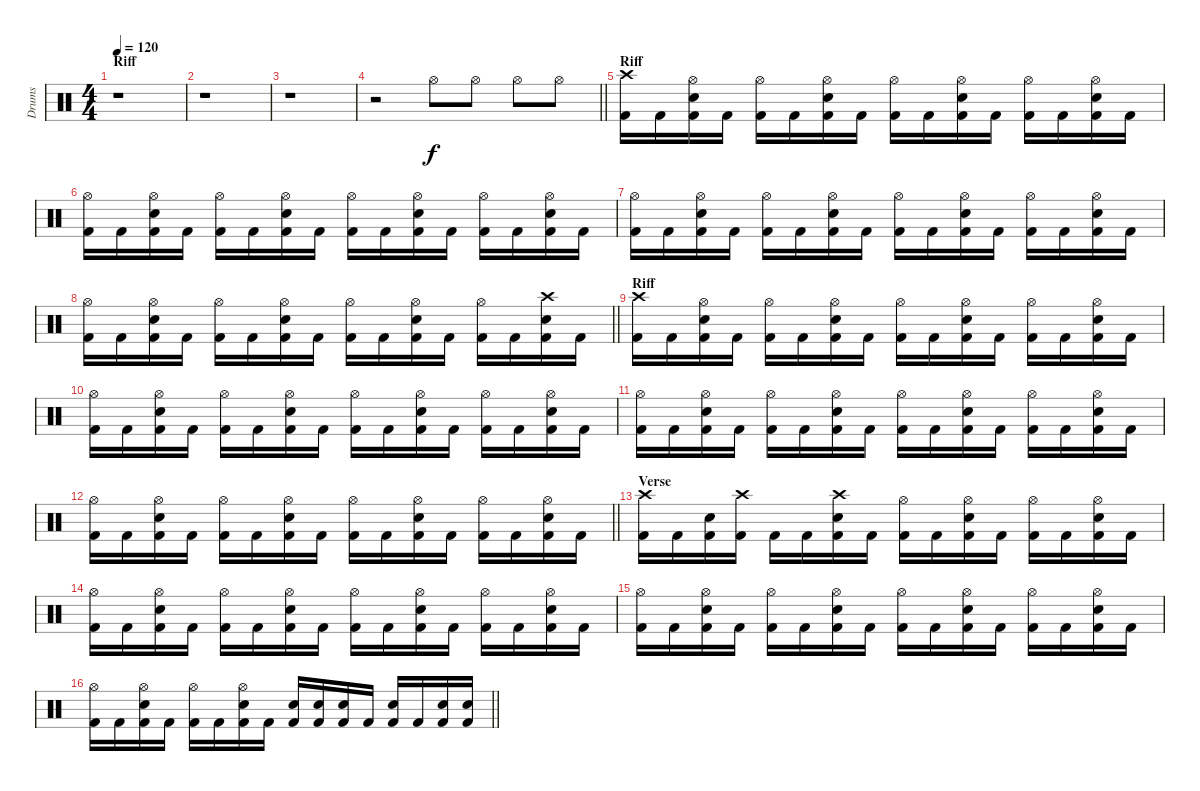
\track ("Drums" "Drums") {instrument percussion}
\staff {score}
\articulation defaults
\ts (4 4)
\section ("" "Riff")
\tempo 120
\clef neutral
\ks c
r.1{dy f} |
r.1 |
r.1 |
\barLineRight lightlight
r.2 "Hi-Hat (open)".8 "Hi-Hat (open)".8 "Hi-Hat (open)".8 "Hi-Hat (open)".8 |
\section ("" "Riff")
("Crash high (hit)" "Kick (hit) 2").16 "Kick (hit) 2".16 ("Hi-Hat (open)" "Snare (hit) 2" "Kick (hit) 2").16 "Kick (hit) 2".16 ("Hi-Hat (open)" "Kick (hit) 2").16 "Kick (hit) 2".16 ("Hi-Hat (open)" "Snare (hit) 2" "Kick (hit) 2").16 "Kick (hit) 2".16 ("Hi-Hat (open)" "Kick (hit) 2").16 "Kick (hit) 2".16 ("Hi-Hat (open)" "Snare (hit) 2" "Kick (hit) 2").16 "Kick (hit) 2".16 ("Hi-Hat (open)" "Kick (hit) 2").16 "Kick (hit) 2".16 ("Hi-Hat (open)" "Snare (hit) 2" "Kick (hit) 2").16 "Kick (hit) 2".16 |
("Hi-Hat (open)" "Kick (hit) 2").16 "Kick (hit) 2".16 ("Hi-Hat (open)" "Snare (hit) 2" "Kick (hit) 2").16 "Kick (hit) 2".16 ("Hi-Hat (open)" "Kick (hit) 2").16 "Kick (hit) 2".16 ("Hi-Hat (open)" "Snare (hit) 2" "Kick (hit) 2").16 "Kick (hit) 2".16 ("Hi-Hat (open)" "Kick (hit) 2").16 "Kick (hit) 2".16 ("Hi-Hat (open)" "Snare (hit) 2" "Kick (hit) 2").16 "Kick (hit) 2".16 ("Hi-Hat (open)" "Kick (hit) 2").16 "Kick (hit) 2".16 ("Hi-Hat (open)" "Snare (hit) 2" "Kick (hit) 2").16 "Kick (hit) 2".16 |
("Hi-Hat (open)" "Kick (hit) 2").16 "Kick (hit) 2".16 ("Hi-Hat (open)" "Snare (hit) 2" "Kick (hit) 2").16 "Kick (hit) 2".16 ("Hi-Hat (open)" "Kick (hit) 2").16 "Kick (hit) 2".16 ("Hi-Hat (open)" "Snare (hit) 2" "Kick (hit) 2").16 "Kick (hit) 2".16 ("Hi-Hat (open)" "Kick (hit) 2").16 "Kick (hit) 2".16 ("Hi-Hat (open)" "Snare (hit) 2" "Kick (hit) 2").16 "Kick (hit) 2".16 ("Hi-Hat (open)" "Kick (hit) 2").16 "Kick (hit) 2".16 ("Hi-Hat (open)" "Snare (hit) 2" "Kick (hit) 2").16 "Kick (hit) 2".16 |
\barLineRight lightlight
("Hi-Hat (open)" "Kick (hit) 2").16 "Kick (hit) 2".16 ("Hi-Hat (open)" "Snare (hit) 2" "Kick (hit) 2").16 "Kick (hit) 2".16 ("Hi-Hat (open)" "Kick (hit) 2").16 "Kick (hit) 2".16 ("Hi-Hat (open)" "Snare (hit) 2" "Kick (hit) 2").16 "Kick (hit) 2".16 ("Hi-Hat (open)" "Kick (hit) 2").16 "Kick (hit) 2".16 ("Hi-Hat (open)" "Snare (hit) 2" "Kick (hit) 2").16 "Kick (hit) 2".16 ("Hi-Hat (open)" "Kick (hit) 2").16 "Kick (hit) 2".16 ("Crash high (hit)" "Snare (hit) 2" "Kick (hit) 2").16 "Kick (hit) 2".16 |
\section ("" "Riff")
("Crash high (hit)" "Kick (hit) 2").16 "Kick (hit) 2".16 ("Hi-Hat (open)" "Snare (hit) 2" "Kick (hit) 2").16 "Kick (hit) 2".16 ("Hi-Hat (open)" "Kick (hit) 2").16 "Kick (hit) 2".16 ("Hi-Hat (open)" "Snare (hit) 2" "Kick (hit) 2").16 "Kick (hit) 2".16 ("Hi-Hat (open)" "Kick (hit) 2").16 "Kick (hit) 2".16 ("Hi-Hat (open)" "Snare (hit) 2" "Kick (hit) 2").16 "Kick (hit) 2".16 ("Hi-Hat (open)" "Kick (hit) 2").16 "Kick (hit) 2".16 ("Hi-Hat (open)" "Snare (hit) 2" "Kick (hit) 2").16 "Kick (hit) 2".16 |
("Hi-Hat (open)" "Kick (hit) 2").16 "Kick (hit) 2".16 ("Hi-Hat (open)" "Snare (hit) 2" "Kick (hit) 2").16 "Kick (hit) 2".16 ("Hi-Hat (open)" "Kick (hit) 2").16 "Kick (hit) 2".16 ("Hi-Hat (open)" "Snare (hit) 2" "Kick (hit) 2").16 "Kick (hit) 2".16 ("Hi-Hat (open)" "Kick (hit) 2").16 "Kick (hit) 2".16 ("Hi-Hat (open)" "Snare (hit) 2" "Kick (hit) 2").16 "Kick (hit) 2".16 ("Hi-Hat (open)" "Kick (hit) 2").16 "Kick (hit) 2".16 ("Hi-Hat (open)" "Snare (hit) 2" "Kick (hit) 2").16 "Kick (hit) 2".16 |
("Hi-Hat (open)" "Kick (hit) 2").16 "Kick (hit) 2".16 ("Hi-Hat (open)" "Snare (hit) 2" "Kick (hit) 2").16 "Kick (hit) 2".16 ("Hi-Hat (open)" "Kick (hit) 2").16 "Kick (hit) 2".16 ("Hi-Hat (open)" "Snare (hit) 2" "Kick (hit) 2").16 "Kick (hit) 2".16 ("Hi-Hat (open)" "Kick (hit) 2").16 "Kick (hit) 2".16 ("Hi-Hat (open)" "Snare (hit) 2" "Kick (hit) 2").16 "Kick (hit) 2".16 ("Hi-Hat (open)" "Kick (hit) 2").16 "Kick (hit) 2".16 ("Hi-Hat (open)" "Snare (hit) 2" "Kick (hit) 2").16 "Kick (hit) 2".16 |
\barLineRight lightlight
("Hi-Hat (open)" "Kick (hit) 2").16 "Kick (hit) 2".16 ("Hi-Hat (open)" "Snare (hit) 2" "Kick (hit) 2").16 "Kick (hit) 2".16 ("Hi-Hat (open)" "Kick (hit) 2").16 "Kick (hit) 2".16 ("Hi-Hat (open)" "Snare (hit) 2" "Kick (hit) 2").16 "Kick (hit) 2".16 ("Hi-Hat (open)" "Kick (hit) 2").16 "Kick (hit) 2".16 ("Hi-Hat (open)" "Snare (hit) 2" "Kick (hit) 2").16 "Kick (hit) 2".16 ("Hi-Hat (open)" "Kick (hit) 2").16 "Kick (hit) 2".16 ("Hi-Hat (open)" "Snare (hit) 2" "Kick (hit) 2").16 "Kick (hit) 2".16 |
\section ("" "Verse")
("Crash high (hit)" "Kick (hit) 2").16 "Kick (hit) 2".16 ("Snare (hit) 2" "Kick (hit) 2").16 ("Crash high (hit)" "Kick (hit) 2").16 "Kick (hit) 2".16 "Kick (hit) 2".16 ("Crash high (hit)" "Snare (hit) 2" "Kick (hit) 2").16 "Kick (hit) 2".16 ("Hi-Hat (open)" "Kick (hit) 2").16 "Kick (hit) 2".16 ("Hi-Hat (open)" "Snare (hit) 2" "Kick (hit) 2").16 "Kick (hit) 2".16 ("Hi-Hat (open)" "Kick (hit) 2").16 "Kick (hit) 2".16 ("Hi-Hat (open)" "Snare (hit) 2" "Kick (hit) 2").16 "Kick (hit) 2".16 |
("Hi-Hat (open)" "Kick (hit) 2").16 "Kick (hit) 2".16 ("Hi-Hat (open)" "Snare (hit) 2" "Kick (hit) 2").16 "Kick (hit) 2".16 ("Hi-Hat (open)" "Kick (hit) 2").16 "Kick (hit) 2".16 ("Hi-Hat (open)" "Snare (hit) 2" "Kick (hit) 2").16 "Kick (hit) 2".16 ("Hi-Hat (open)" "Kick (hit) 2").16 "Kick (hit) 2".16 ("Hi-Hat (open)" "Snare (hit) 2" "Kick (hit) 2").16 "Kick (hit) 2".16 ("Hi-Hat (open)" "Kick (hit) 2").16 "Kick (hit) 2".16 ("Hi-Hat (open)" "Snare (hit) 2" "Kick (hit) 2").16 "Kick (hit) 2".16 |
("Hi-Hat (open)" "Kick (hit) 2").16 "Kick (hit) 2".16 ("Hi-Hat (open)" "Snare (hit) 2" "Kick (hit) 2").16 "Kick (hit) 2".16 ("Hi-Hat (open)" "Kick (hit) 2").16 "Kick (hit) 2".16 ("Hi-Hat (open)" "Snare (hit) 2" "Kick (hit) 2").16 "Kick (hit) 2".16 ("Hi-Hat (open)" "Kick (hit) 2").16 "Kick (hit) 2".16 ("Hi-Hat (open)" "Snare (hit) 2" "Kick (hit) 2").16 "Kick (hit) 2".16 ("Hi-Hat (open)" "Kick (hit) 2").16 "Kick (hit) 2".16 ("Hi-Hat (open)" "Snare (hit) 2" "Kick (hit) 2").16 "Kick (hit) 2".16 |
\barLineRight lightlight
("Hi-Hat (open)" "Kick (hit) 2").16 "Kick (hit) 2".16 ("Hi-Hat (open)" "Snare (hit) 2" "Kick (hit) 2").16 "Kick (hit) 2".16 ("Hi-Hat (open)" "Kick (hit) 2").16 "Kick (hit) 2".16 ("Hi-Hat (open)" "Snare (hit) 2" "Kick (hit) 2").16 "Kick (hit) 2".16 ("Snare (hit) 2" "Kick (hit) 2").16 ("Snare (hit) 2" "Kick (hit) 2").16 ("Snare (hit) 2" "Kick (hit) 2").16 "Kick (hit) 2".16 ("Snare (hit) 2" "Kick (hit) 2").16 "Kick (hit) 2".16 ("Snare (hit) 2" "Kick (hit) 2").16 ("Snare (hit) 2" "Kick (hit) 2").16
